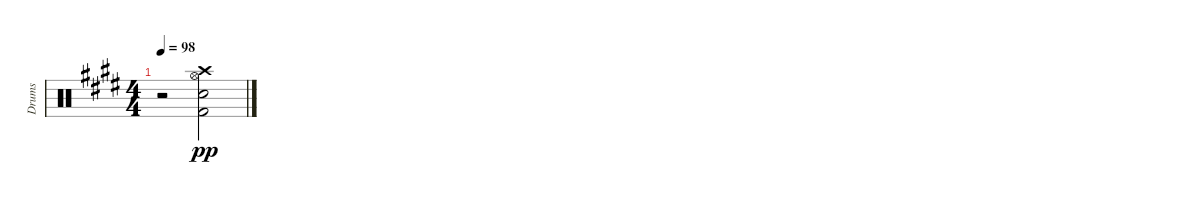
\track ("Drums" "Drums") {instrument percussion}
\staff {score}
\articulation defaults
\ts (4 4)
\tempo 98
\clef neutral
\ks e
r.2{dy pp} ("Crash high (hit)" "Snare (hit) 2" "Hi-Hat (open)" "Kick (hit) 2").2
